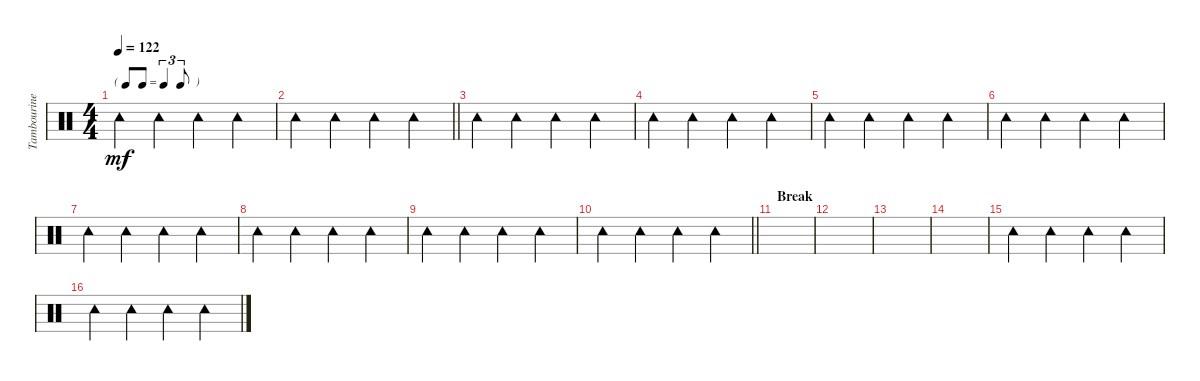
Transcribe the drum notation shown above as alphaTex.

\track ("Tambourine" "Tambourine") {instrument percussion}
\staff {score}
\articulation defaults
\ts (4 4)
\tf triplet8th
\tempo 122
\clef neutral
\ks c "Tambourine (hit)".4{dy mf} "Tambourine (hit)".4 "Tambourine (hit)".4 "Tambourine (hit)".4
|
\barLineRight lightlight "Tambourine (hit)".4 "Tambourine (hit)".4 "Tambourine (hit)".4 "Tambourine (hit)".4
|
"Tambourine (hit)".4 "Tambourine (hit)".4 "Tambourine (hit)".4 "Tambourine (hit)".4 |
"Tambourine (hit)".4 "Tambourine (hit)".4 "Tambourine (hit)".4 "Tambourine (hit)".4 |
"Tambourine (hit)".4 "Tambourine (hit)".4 "Tambourine (hit)".4 "Tambourine (hit)".4 |
"Tambourine (hit)".4 "Tambourine (hit)".4 "Tambourine (hit)".4 "Tambourine (hit)".4 |
"Tambourine (hit)".4 "Tambourine (hit)".4 "Tambourine (hit)".4 "Tambourine (hit)".4 |
"Tambourine (hit)".4 "Tambourine (hit)".4 "Tambourine (hit)".4 "Tambourine (hit)".4 |
"Tambourine (hit)".4 "Tambourine (hit)".4 "Tambourine (hit)".4 "Tambourine (hit)".4 |
\barLineRight lightlight "Tambourine (hit)".4 "Tambourine (hit)".4 "Tambourine (hit)".4 "Tambourine (hit)".4
|
\section ("" "Break")
|
|
|
|
"Tambourine (hit)".4 "Tambourine (hit)".4 "Tambourine (hit)".4 "Tambourine (hit)".4 |
"Tambourine (hit)".4 "Tambourine (hit)".4 "Tambourine (hit)".4 "Tambourine (hit)".4
